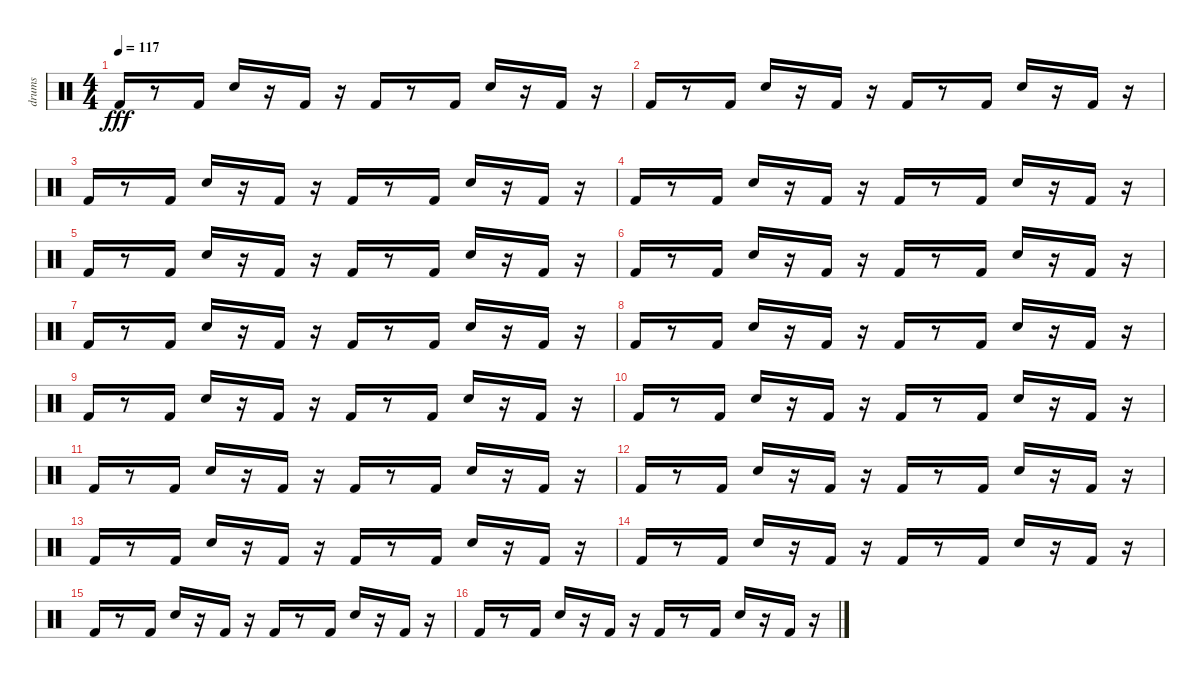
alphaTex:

\track ("drums" "drums") {instrument percussion}
\staff {score}
\articulation defaults
\ts (4 4)
\tempo 117
\clef neutral
\ks c "Kick (hit) 2".16{dy fff}
r.8 "Kick (hit) 2".16 "Snare (hit) 2".16 r.16 "Kick (hit) 2".16 r.16 "Kick (hit) 2".16 r.8 "Kick (hit) 2".16 "Snare (hit) 2".16 r.16 "Kick (hit) 2".16 r.16 |
"Kick (hit) 2".16 r.8 "Kick (hit) 2".16 "Snare (hit) 2".16 r.16 "Kick (hit) 2".16 r.16 "Kick (hit) 2".16 r.8 "Kick (hit) 2".16 "Snare (hit) 2".16 r.16 "Kick (hit) 2".16 r.16 |
"Kick (hit) 2".16 r.8 "Kick (hit) 2".16 "Snare (hit) 2".16 r.16 "Kick (hit) 2".16 r.16 "Kick (hit) 2".16 r.8 "Kick (hit) 2".16 "Snare (hit) 2".16 r.16 "Kick (hit) 2".16 r.16 |
"Kick (hit) 2".16 r.8 "Kick (hit) 2".16 "Snare (hit) 2".16 r.16 "Kick (hit) 2".16 r.16 "Kick (hit) 2".16 r.8 "Kick (hit) 2".16 "Snare (hit) 2".16 r.16 "Kick (hit) 2".16 r.16 |
"Kick (hit) 2".16 r.8 "Kick (hit) 2".16 "Snare (hit) 2".16 r.16 "Kick (hit) 2".16 r.16 "Kick (hit) 2".16 r.8 "Kick (hit) 2".16 "Snare (hit) 2".16 r.16 "Kick (hit) 2".16 r.16 |
"Kick (hit) 2".16 r.8 "Kick (hit) 2".16 "Snare (hit) 2".16 r.16 "Kick (hit) 2".16 r.16 "Kick (hit) 2".16 r.8 "Kick (hit) 2".16 "Snare (hit) 2".16 r.16 "Kick (hit) 2".16 r.16 |
"Kick (hit) 2".16 r.8 "Kick (hit) 2".16 "Snare (hit) 2".16 r.16 "Kick (hit) 2".16 r.16 "Kick (hit) 2".16 r.8 "Kick (hit) 2".16 "Snare (hit) 2".16 r.16 "Kick (hit) 2".16 r.16 |
"Kick (hit) 2".16 r.8 "Kick (hit) 2".16 "Snare (hit) 2".16 r.16 "Kick (hit) 2".16 r.16 "Kick (hit) 2".16 r.8 "Kick (hit) 2".16 "Snare (hit) 2".16 r.16 "Kick (hit) 2".16 r.16 |
"Kick (hit) 2".16 r.8 "Kick (hit) 2".16 "Snare (hit) 2".16 r.16 "Kick (hit) 2".16 r.16 "Kick (hit) 2".16 r.8 "Kick (hit) 2".16 "Snare (hit) 2".16 r.16 "Kick (hit) 2".16 r.16 |
"Kick (hit) 2".16 r.8 "Kick (hit) 2".16 "Snare (hit) 2".16 r.16 "Kick (hit) 2".16 r.16 "Kick (hit) 2".16 r.8 "Kick (hit) 2".16 "Snare (hit) 2".16 r.16 "Kick (hit) 2".16 r.16 |
"Kick (hit) 2".16 r.8 "Kick (hit) 2".16 "Snare (hit) 2".16 r.16 "Kick (hit) 2".16 r.16 "Kick (hit) 2".16 r.8 "Kick (hit) 2".16 "Snare (hit) 2".16 r.16 "Kick (hit) 2".16 r.16 |
"Kick (hit) 2".16 r.8 "Kick (hit) 2".16 "Snare (hit) 2".16 r.16 "Kick (hit) 2".16 r.16 "Kick (hit) 2".16 r.8 "Kick (hit) 2".16 "Snare (hit) 2".16 r.16 "Kick (hit) 2".16 r.16 |
"Kick (hit) 2".16 r.8 "Kick (hit) 2".16 "Snare (hit) 2".16 r.16 "Kick (hit) 2".16 r.16 "Kick (hit) 2".16 r.8 "Kick (hit) 2".16 "Snare (hit) 2".16 r.16 "Kick (hit) 2".16 r.16 |
"Kick (hit) 2".16 r.8 "Kick (hit) 2".16 "Snare (hit) 2".16 r.16 "Kick (hit) 2".16 r.16 "Kick (hit) 2".16 r.8 "Kick (hit) 2".16 "Snare (hit) 2".16 r.16 "Kick (hit) 2".16 r.16 |
"Kick (hit) 2".16 r.8 "Kick (hit) 2".16 "Snare (hit) 2".16 r.16 "Kick (hit) 2".16 r.16 "Kick (hit) 2".16 r.8 "Kick (hit) 2".16 "Snare (hit) 2".16 r.16 "Kick (hit) 2".16 r.16 |
"Kick (hit) 2".16 r.8 "Kick (hit) 2".16 "Snare (hit) 2".16 r.16 "Kick (hit) 2".16 r.16 "Kick (hit) 2".16 r.8 "Kick (hit) 2".16 "Snare (hit) 2".16 r.16 "Kick (hit) 2".16 r.16
